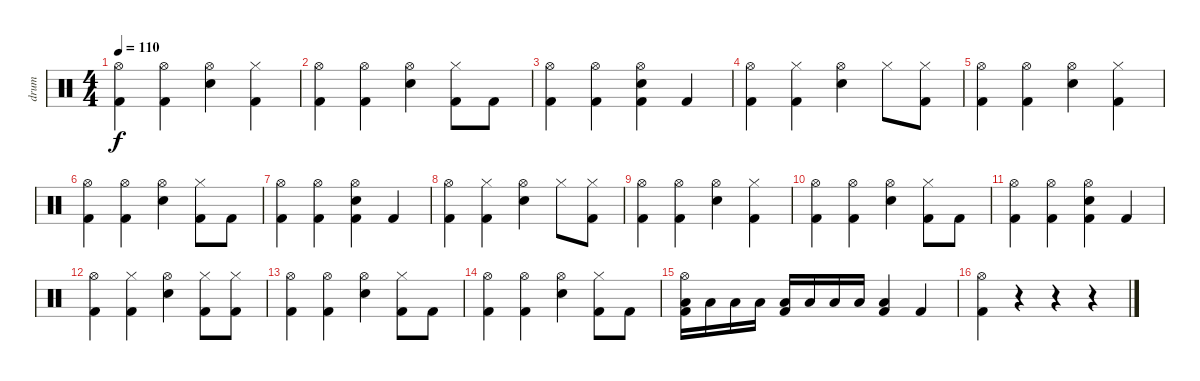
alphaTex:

\track ("drum" "drum") {instrument percussion}
\staff {score}
\articulation defaults
\ts (4 4)
\tempo 110
\clef neutral
\ks c
("Hi-Hat (open)" "Kick (hit) 2").4{dy f} ("Hi-Hat (open)" "Kick (hit) 2").4 ("Hi-Hat (open)" "Electric Snare (hit)").4 ("Hi-Hat (closed)" "Kick (hit) 2").4 |
("Hi-Hat (open)" "Kick (hit) 2").4 ("Hi-Hat (open)" "Kick (hit) 2").4 ("Hi-Hat (open)" "Electric Snare (hit)").4 ("Hi-Hat (closed)" "Kick (hit) 2").8 "Kick (hit) 2".8 |
("Hi-Hat (open)" "Kick (hit) 2").4 ("Hi-Hat (open)" "Kick (hit) 2").4 ("Hi-Hat (open)" "Electric Snare (hit)" "Kick (hit) 2").4 "Kick (hit) 2".4 |
("Hi-Hat (open)" "Kick (hit) 2").4 ("Hi-Hat (closed)" "Kick (hit) 2").4 ("Hi-Hat (open)" "Electric Snare (hit)").4 "Hi-Hat (closed)".8 ("Hi-Hat (closed)" "Kick (hit) 2").8 |
("Hi-Hat (open)" "Kick (hit) 2").4 ("Hi-Hat (open)" "Kick (hit) 2").4 ("Hi-Hat (open)" "Electric Snare (hit)").4 ("Hi-Hat (closed)" "Kick (hit) 2").4 |
("Hi-Hat (open)" "Kick (hit) 2").4 ("Hi-Hat (open)" "Kick (hit) 2").4 ("Hi-Hat (open)" "Electric Snare (hit)").4 ("Hi-Hat (closed)" "Kick (hit) 2").8 "Kick (hit) 2".8 |
("Hi-Hat (open)" "Kick (hit) 2").4 ("Hi-Hat (open)" "Kick (hit) 2").4 ("Hi-Hat (open)" "Electric Snare (hit)" "Kick (hit) 2").4 "Kick (hit) 2".4 |
("Hi-Hat (open)" "Kick (hit) 2").4 ("Hi-Hat (closed)" "Kick (hit) 2").4 ("Hi-Hat (open)" "Electric Snare (hit)").4 "Hi-Hat (closed)".8 ("Hi-Hat (closed)" "Kick (hit) 2").8 |
("Hi-Hat (open)" "Kick (hit) 2").4 ("Hi-Hat (open)" "Kick (hit) 2").4 ("Hi-Hat (open)" "Electric Snare (hit)").4 ("Hi-Hat (closed)" "Kick (hit) 2").4 |
("Hi-Hat (open)" "Kick (hit) 2").4 ("Hi-Hat (open)" "Kick (hit) 2").4 ("Hi-Hat (open)" "Electric Snare (hit)").4 ("Hi-Hat (closed)" "Kick (hit) 2").8 "Kick (hit) 2".8 |
("Hi-Hat (open)" "Kick (hit) 2").4 ("Hi-Hat (open)" "Kick (hit) 2").4 ("Hi-Hat (open)" "Electric Snare (hit)" "Kick (hit) 2").4 "Kick (hit) 2".4 |
("Hi-Hat (open)" "Kick (hit) 2").4 ("Hi-Hat (closed)" "Kick (hit) 2").4 ("Hi-Hat (open)" "Electric Snare (hit)").4 ("Hi-Hat (closed)" "Kick (hit) 2").8 ("Hi-Hat (closed)" "Kick (hit) 2").8 |
("Hi-Hat (open)" "Kick (hit) 2").4 ("Hi-Hat (open)" "Kick (hit) 2").4 ("Hi-Hat (open)" "Electric Snare (hit)").4 ("Hi-Hat (closed)" "Kick (hit) 2").8 "Kick (hit) 2".8 |
("Hi-Hat (open)" "Kick (hit) 2").4 ("Hi-Hat (open)" "Kick (hit) 2").4 ("Hi-Hat (open)" "Electric Snare (hit)").4 ("Hi-Hat (closed)" "Kick (hit) 2").8 "Kick (hit) 2".8 |
("Hi-Hat (open)" "Low Tom (hit)" "Kick (hit) 2").16 "Low Tom (hit)".16 "Low Tom (hit)".16 "Low Tom (hit)".16 ("Low Tom (hit)" "Kick (hit) 2").16 "Low Tom (hit)".16 "Low Tom (hit)".16 "Low Tom (hit)".16 ("Low Tom (hit)" "Kick (hit) 2").4 "Kick (hit) 2".4 |
("Hi-Hat (open)" "Kick (hit) 2").4 r.4 r.4 r.4
